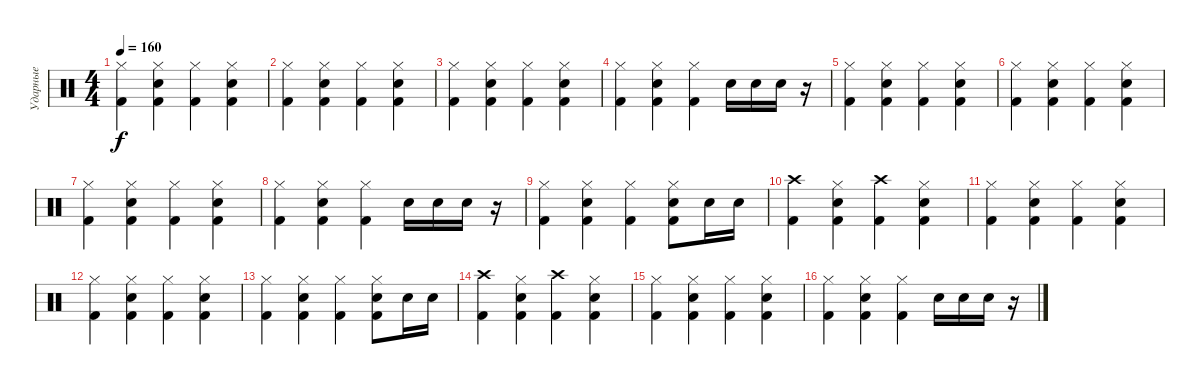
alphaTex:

\track ("Ударные" "Ударные") {instrument percussion}
\staff {score}
\articulation defaults
\ts (4 4)
\tempo 160
\clef neutral
\ks c
("Hi-Hat (closed)" "Kick (hit) 2").4{dy f} ("Hi-Hat (closed)" "Snare (hit) 2" "Kick (hit) 2").4 ("Hi-Hat (closed)" "Kick (hit) 2").4 ("Hi-Hat (closed)" "Snare (hit) 2" "Kick (hit) 2").4 |
("Hi-Hat (closed)" "Kick (hit) 2").4 ("Hi-Hat (closed)" "Snare (hit) 2" "Kick (hit) 2").4 ("Hi-Hat (closed)" "Kick (hit) 2").4 ("Hi-Hat (closed)" "Snare (hit) 2" "Kick (hit) 2").4 |
("Hi-Hat (closed)" "Kick (hit) 2").4 ("Hi-Hat (closed)" "Snare (hit) 2" "Kick (hit) 2").4 ("Hi-Hat (closed)" "Kick (hit) 2").4 ("Hi-Hat (closed)" "Snare (hit) 2" "Kick (hit) 2").4 |
("Hi-Hat (closed)" "Kick (hit) 2").4 ("Hi-Hat (closed)" "Snare (hit) 2" "Kick (hit) 2").4 ("Hi-Hat (closed)" "Kick (hit) 2").4 "Snare (hit) 2".16 "Snare (hit) 2".16 "Snare (hit) 2".16 r.16 |
("Hi-Hat (closed)" "Kick (hit) 2").4 ("Hi-Hat (closed)" "Snare (hit) 2" "Kick (hit) 2").4 ("Hi-Hat (closed)" "Kick (hit) 2").4 ("Hi-Hat (closed)" "Snare (hit) 2" "Kick (hit) 2").4 |
("Hi-Hat (closed)" "Kick (hit) 2").4 ("Hi-Hat (closed)" "Snare (hit) 2" "Kick (hit) 2").4 ("Hi-Hat (closed)" "Kick (hit) 2").4 ("Hi-Hat (closed)" "Snare (hit) 2" "Kick (hit) 2").4 |
("Hi-Hat (closed)" "Kick (hit) 2").4 ("Hi-Hat (closed)" "Snare (hit) 2" "Kick (hit) 2").4 ("Hi-Hat (closed)" "Kick (hit) 2").4 ("Hi-Hat (closed)" "Snare (hit) 2" "Kick (hit) 2").4 |
("Hi-Hat (closed)" "Kick (hit) 2").4 ("Hi-Hat (closed)" "Snare (hit) 2" "Kick (hit) 2").4 ("Hi-Hat (closed)" "Kick (hit) 2").4 "Snare (hit) 2".16 "Snare (hit) 2".16 "Snare (hit) 2".16 r.16 |
("Hi-Hat (closed)" "Kick (hit) 2").4 ("Hi-Hat (closed)" "Snare (hit) 2" "Kick (hit) 2").4 ("Hi-Hat (closed)" "Kick (hit) 2").4 ("Hi-Hat (closed)" "Snare (hit) 2" "Kick (hit) 2").8 "Snare (hit) 2".16 "Snare (hit) 2".16 |
("Crash high (hit)" "Kick (hit) 2").4 ("Hi-Hat (closed)" "Snare (hit) 2" "Kick (hit) 2").4 ("Crash high (hit)" "Kick (hit) 2").4 ("Hi-Hat (closed)" "Snare (hit) 2" "Kick (hit) 2").4 |
("Hi-Hat (closed)" "Kick (hit) 2").4 ("Hi-Hat (closed)" "Snare (hit) 2" "Kick (hit) 2").4 ("Hi-Hat (closed)" "Kick (hit) 2").4 ("Hi-Hat (closed)" "Snare (hit) 2" "Kick (hit) 2").4 |
("Hi-Hat (closed)" "Kick (hit) 2").4 ("Hi-Hat (closed)" "Snare (hit) 2" "Kick (hit) 2").4 ("Hi-Hat (closed)" "Kick (hit) 2").4 ("Hi-Hat (closed)" "Snare (hit) 2" "Kick (hit) 2").4 |
("Hi-Hat (closed)" "Kick (hit) 2").4 ("Hi-Hat (closed)" "Snare (hit) 2" "Kick (hit) 2").4 ("Hi-Hat (closed)" "Kick (hit) 2").4 ("Hi-Hat (closed)" "Snare (hit) 2" "Kick (hit) 2").8 "Snare (hit) 2".16 "Snare (hit) 2".16 |
("Crash high (hit)" "Kick (hit) 2").4 ("Hi-Hat (closed)" "Snare (hit) 2" "Kick (hit) 2").4 ("Crash high (hit)" "Kick (hit) 2").4 ("Hi-Hat (closed)" "Snare (hit) 2" "Kick (hit) 2").4 |
("Hi-Hat (closed)" "Kick (hit) 2").4 ("Hi-Hat (closed)" "Snare (hit) 2" "Kick (hit) 2").4 ("Hi-Hat (closed)" "Kick (hit) 2").4 ("Hi-Hat (closed)" "Snare (hit) 2" "Kick (hit) 2").4 |
("Hi-Hat (closed)" "Kick (hit) 2").4 ("Hi-Hat (closed)" "Snare (hit) 2" "Kick (hit) 2").4 ("Hi-Hat (closed)" "Kick (hit) 2").4 "Snare (hit) 2".16 "Snare (hit) 2".16 "Snare (hit) 2".16 r.16
